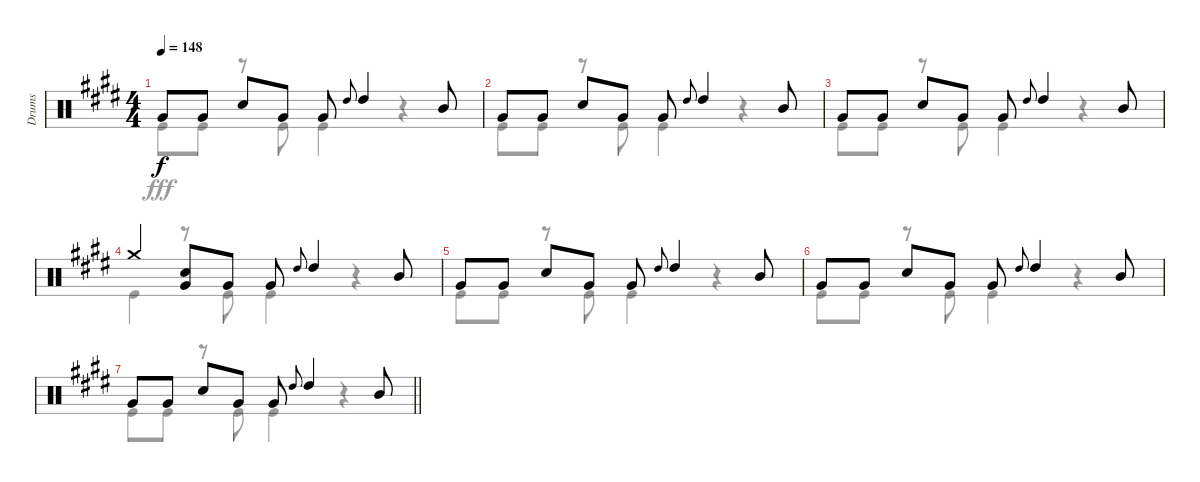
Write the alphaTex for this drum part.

\track ("Drums" "Drums") {instrument percussion}
\staff {score}
\articulation defaults
\voice
\ts (4 4)
\tempo 148
\clef neutral
\ks e "Very Low Tom (hit)".8{dy f} "Very Low Tom (hit)".8 "Snare (hit) 2".8 "Very Low Tom (hit)".8 "Very Low Tom (hit)".8 "High Tom (hit)".8{gr onbeat} "High Tom (hit)".4 "Mid Tom (hit)".8
|
"Very Low Tom (hit)".8 "Very Low Tom (hit)".8 "Snare (hit) 2".8 "Very Low Tom (hit)".8 "Very Low Tom (hit)".8 "High Tom (hit)".8{gr onbeat} "High Tom (hit)".4 "Mid Tom (hit)".8 |
"Very Low Tom (hit)".8 "Very Low Tom (hit)".8 "Snare (hit) 2".8 "Very Low Tom (hit)".8 "Very Low Tom (hit)".8 "High Tom (hit)".8{gr onbeat} "High Tom (hit)".4 "Mid Tom (hit)".8 |
"Crash medium (hit)".4 ("Snare (hit) 2" "Very Low Tom (hit)").8 "Very Low Tom (hit)".8 "Very Low Tom (hit)".8 "High Tom (hit)".8{gr onbeat} "High Tom (hit)".4 "Mid Tom (hit)".8 |
"Very Low Tom (hit)".8 "Very Low Tom (hit)".8 "Snare (hit) 2".8 "Very Low Tom (hit)".8 "Very Low Tom (hit)".8 "High Tom (hit)".8{gr onbeat} "High Tom (hit)".4 "Mid Tom (hit)".8 |
"Very Low Tom (hit)".8 "Very Low Tom (hit)".8 "Snare (hit) 2".8 "Very Low Tom (hit)".8 "Very Low Tom (hit)".8 "High Tom (hit)".8{gr onbeat} "High Tom (hit)".4 "Mid Tom (hit)".8 |
\barLineRight lightlight "Very Low Tom (hit)".8 "Very Low Tom (hit)".8 "Snare (hit) 2".8 "Very Low Tom (hit)".8 "Very Low Tom (hit)".8 "High Tom (hit)".8{gr onbeat} "High Tom (hit)".4 "Mid Tom (hit)".8
\voice
\clef neutral
\ottava regular
\simile none
\ks e "Kick (hit)".8{dy fff} "Kick (hit)".8
r.8 "Kick (hit)".8 "Kick (hit)".4 r.4 |
"Kick (hit)".8 "Kick (hit)".8 r.8 "Kick (hit)".8 "Kick (hit)".4 r.4 |
"Kick (hit)".8 "Kick (hit)".8 r.8 "Kick (hit)".8 "Kick (hit)".4 r.4 |
"Kick (hit)".4 r.8 "Kick (hit)".8 "Kick (hit)".4 r.4 |
"Kick (hit)".8 "Kick (hit)".8 r.8 "Kick (hit)".8 "Kick (hit)".4 r.4 |
"Kick (hit)".8 "Kick (hit)".8 r.8 "Kick (hit)".8 "Kick (hit)".4 r.4 |
\barLineRight lightlight "Kick (hit)".8 "Kick (hit)".8
r.8 "Kick (hit)".8 "Kick (hit)".4 r.4
